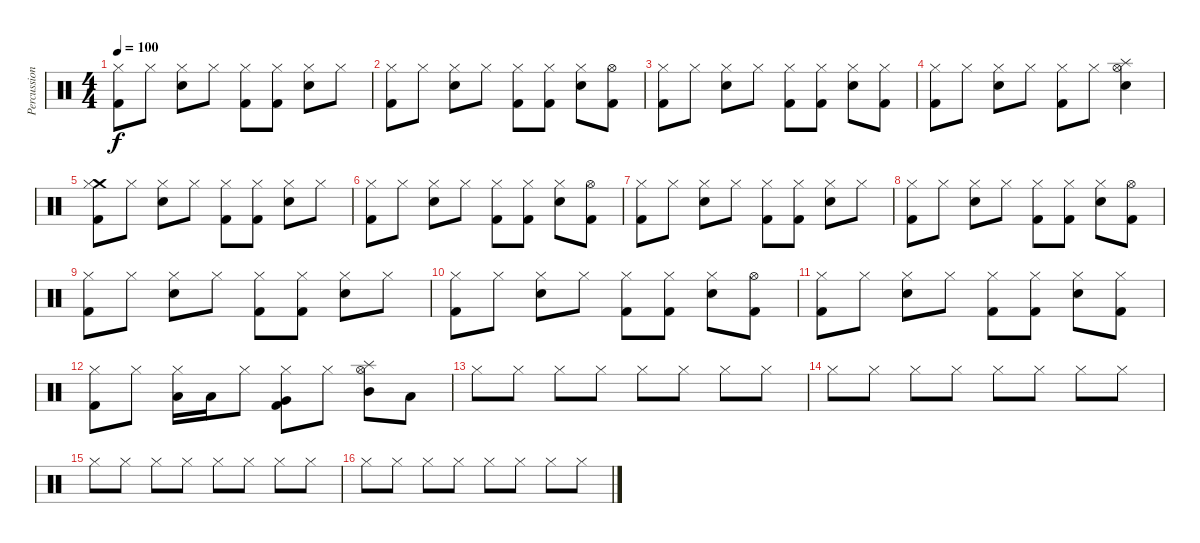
\track ("Percussion" "Percussion") {instrument percussion}
\staff {score}
\articulation defaults
\ts (4 4)
\tempo 100
\clef neutral
\ks c
("Kick (hit) 2" "Hi-Hat (closed)").8{dy f} "Hi-Hat (closed)".8 ("Snare (hit) 2" "Hi-Hat (closed)").8 "Hi-Hat (closed)".8 ("Kick (hit) 2" "Hi-Hat (closed)").8 ("Kick (hit) 2" "Hi-Hat (closed)").8 ("Snare (hit) 2" "Hi-Hat (closed)").8 "Hi-Hat (closed)".8 |
("Kick (hit) 2" "Hi-Hat (closed)").8 "Hi-Hat (closed)".8 ("Snare (hit) 2" "Hi-Hat (closed)").8 "Hi-Hat (closed)".8 ("Kick (hit) 2" "Hi-Hat (closed)").8 ("Kick (hit) 2" "Hi-Hat (closed)").8 ("Snare (hit) 2" "Hi-Hat (closed)").8 ("Kick (hit) 2" "Hi-Hat (open)").8 |
("Kick (hit) 2" "Hi-Hat (closed)").8 "Hi-Hat (closed)".8 ("Snare (hit) 2" "Hi-Hat (closed)").8 "Hi-Hat (closed)".8 ("Kick (hit) 2" "Hi-Hat (closed)").8 ("Kick (hit) 2" "Hi-Hat (closed)").8 ("Snare (hit) 2" "Hi-Hat (closed)").8 ("Kick (hit) 2" "Hi-Hat (closed)").8 |
("Kick (hit) 2" "Hi-Hat (closed)").8 "Hi-Hat (closed)".8 ("Snare (hit) 2" "Hi-Hat (closed)").8 "Hi-Hat (closed)".8 ("Kick (hit) 2" "Hi-Hat (closed)").8 "Hi-Hat (closed)".8 ("Splash (hit)" "Snare (hit) 2" "Hi-Hat (open)").4 |
("Crash medium (hit)" "Kick (hit) 2" "Hi-Hat (closed)").8 "Hi-Hat (closed)".8 ("Snare (hit) 2" "Hi-Hat (closed)").8 "Hi-Hat (closed)".8 ("Kick (hit) 2" "Hi-Hat (closed)").8 ("Kick (hit) 2" "Hi-Hat (closed)").8 ("Snare (hit) 2" "Hi-Hat (closed)").8 "Hi-Hat (closed)".8 |
("Kick (hit) 2" "Hi-Hat (closed)").8 "Hi-Hat (closed)".8 ("Snare (hit) 2" "Hi-Hat (closed)").8 "Hi-Hat (closed)".8 ("Kick (hit) 2" "Hi-Hat (closed)").8 ("Kick (hit) 2" "Hi-Hat (closed)").8 ("Snare (hit) 2" "Hi-Hat (closed)").8 ("Kick (hit) 2" "Hi-Hat (open)").8 |
("Kick (hit) 2" "Hi-Hat (closed)").8 "Hi-Hat (closed)".8 ("Snare (hit) 2" "Hi-Hat (closed)").8 "Hi-Hat (closed)".8 ("Kick (hit) 2" "Hi-Hat (closed)").8 ("Kick (hit) 2" "Hi-Hat (closed)").8 ("Snare (hit) 2" "Hi-Hat (closed)").8 "Hi-Hat (closed)".8 |
("Kick (hit) 2" "Hi-Hat (closed)").8 "Hi-Hat (closed)".8 ("Snare (hit) 2" "Hi-Hat (closed)").8 "Hi-Hat (closed)".8 ("Kick (hit) 2" "Hi-Hat (closed)").8 ("Kick (hit) 2" "Hi-Hat (closed)").8 ("Snare (hit) 2" "Hi-Hat (closed)").8 ("Kick (hit) 2" "Hi-Hat (open)").8 |
("Kick (hit) 2" "Hi-Hat (closed)").8 "Hi-Hat (closed)".8 ("Snare (hit) 2" "Hi-Hat (closed)").8 "Hi-Hat (closed)".8 ("Kick (hit) 2" "Hi-Hat (closed)").8 ("Kick (hit) 2" "Hi-Hat (closed)").8 ("Snare (hit) 2" "Hi-Hat (closed)").8 "Hi-Hat (closed)".8 |
("Kick (hit) 2" "Hi-Hat (closed)").8 "Hi-Hat (closed)".8 ("Snare (hit) 2" "Hi-Hat (closed)").8 "Hi-Hat (closed)".8 ("Kick (hit) 2" "Hi-Hat (closed)").8 ("Kick (hit) 2" "Hi-Hat (closed)").8 ("Snare (hit) 2" "Hi-Hat (closed)").8 ("Kick (hit) 2" "Hi-Hat (open)").8 |
("Kick (hit) 2" "Hi-Hat (closed)").8 "Hi-Hat (closed)".8 ("Snare (hit) 2" "Hi-Hat (closed)").8 "Hi-Hat (closed)".8 ("Kick (hit) 2" "Hi-Hat (closed)").8 ("Kick (hit) 2" "Hi-Hat (closed)").8 ("Snare (hit) 2" "Hi-Hat (closed)").8 ("Kick (hit) 2" "Hi-Hat (closed)").8 |
("Kick (hit) 2" "Hi-Hat (closed)").8 "Hi-Hat (closed)".8 ("Low Tom (hit)" "Hi-Hat (closed)").16 "Low Tom (hit)".16 "Hi-Hat (closed)".8 ("Very Low Tom (hit)" "Kick (hit) 2" "Hi-Hat (closed)").8 "Hi-Hat (closed)".8 ("Splash (hit)" "Mid Tom (hit)" "Hi-Hat (open)").8 "Low Tom (hit)".8 |
"Hi-Hat (closed)".8 "Hi-Hat (closed)".8 "Hi-Hat (closed)".8 "Hi-Hat (closed)".8 "Hi-Hat (closed)".8 "Hi-Hat (closed)".8 "Hi-Hat (closed)".8 "Hi-Hat (closed)".8 |
"Hi-Hat (closed)".8 "Hi-Hat (closed)".8 "Hi-Hat (closed)".8 "Hi-Hat (closed)".8 "Hi-Hat (closed)".8 "Hi-Hat (closed)".8 "Hi-Hat (closed)".8 "Hi-Hat (closed)".8 |
"Hi-Hat (closed)".8 "Hi-Hat (closed)".8 "Hi-Hat (closed)".8 "Hi-Hat (closed)".8 "Hi-Hat (closed)".8 "Hi-Hat (closed)".8 "Hi-Hat (closed)".8 "Hi-Hat (closed)".8 |
"Hi-Hat (closed)".8 "Hi-Hat (closed)".8 "Hi-Hat (closed)".8 "Hi-Hat (closed)".8 "Hi-Hat (closed)".8 "Hi-Hat (closed)".8 "Hi-Hat (closed)".8 "Hi-Hat (closed)".8
